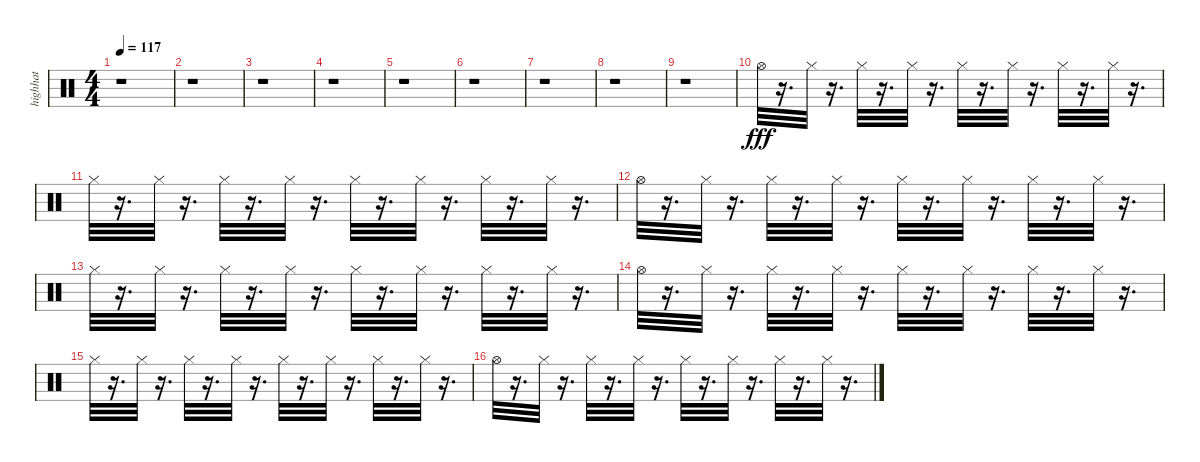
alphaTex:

\track ("highhat" "highhat") {instrument percussion}
\staff {score}
\articulation defaults
\ts (4 4)
\tempo 117
\clef neutral
\ks c
r.1{dy fff} |
r.1 |
r.1 |
r.1 |
r.1 |
r.1 |
r.1 |
r.1 |
r.1 |
"Hi-Hat (open)".32 r.16{d} "Hi-Hat (closed)".32 r.16{d} "Hi-Hat (closed)".32 r.16{d} "Hi-Hat (closed)".32 r.16{d} "Hi-Hat (closed)".32 r.16{d} "Hi-Hat (closed)".32 r.16{d} "Hi-Hat (closed)".32 r.16{d} "Hi-Hat (closed)".32 r.16{d} |
"Hi-Hat (closed)".32 r.16{d} "Hi-Hat (closed)".32 r.16{d} "Hi-Hat (closed)".32 r.16{d} "Hi-Hat (closed)".32 r.16{d} "Hi-Hat (closed)".32 r.16{d} "Hi-Hat (closed)".32 r.16{d} "Hi-Hat (closed)".32 r.16{d} "Hi-Hat (closed)".32 r.16{d} |
"Hi-Hat (open)".32 r.16{d} "Hi-Hat (closed)".32 r.16{d} "Hi-Hat (closed)".32 r.16{d} "Hi-Hat (closed)".32 r.16{d} "Hi-Hat (closed)".32 r.16{d} "Hi-Hat (closed)".32 r.16{d} "Hi-Hat (closed)".32 r.16{d} "Hi-Hat (closed)".32 r.16{d} |
"Hi-Hat (closed)".32 r.16{d} "Hi-Hat (closed)".32 r.16{d} "Hi-Hat (closed)".32 r.16{d} "Hi-Hat (closed)".32 r.16{d} "Hi-Hat (closed)".32 r.16{d} "Hi-Hat (closed)".32 r.16{d} "Hi-Hat (closed)".32 r.16{d} "Hi-Hat (closed)".32 r.16{d} |
"Hi-Hat (open)".32 r.16{d} "Hi-Hat (closed)".32 r.16{d} "Hi-Hat (closed)".32 r.16{d} "Hi-Hat (closed)".32 r.16{d} "Hi-Hat (closed)".32 r.16{d} "Hi-Hat (closed)".32 r.16{d} "Hi-Hat (closed)".32 r.16{d} "Hi-Hat (closed)".32 r.16{d} |
"Hi-Hat (closed)".32 r.16{d} "Hi-Hat (closed)".32 r.16{d} "Hi-Hat (closed)".32 r.16{d} "Hi-Hat (closed)".32 r.16{d} "Hi-Hat (closed)".32 r.16{d} "Hi-Hat (closed)".32 r.16{d} "Hi-Hat (closed)".32 r.16{d} "Hi-Hat (closed)".32 r.16{d} |
"Hi-Hat (open)".32 r.16{d} "Hi-Hat (closed)".32 r.16{d} "Hi-Hat (closed)".32 r.16{d} "Hi-Hat (closed)".32 r.16{d} "Hi-Hat (closed)".32 r.16{d} "Hi-Hat (closed)".32 r.16{d} "Hi-Hat (closed)".32 r.16{d} "Hi-Hat (closed)".32 r.16{d}
